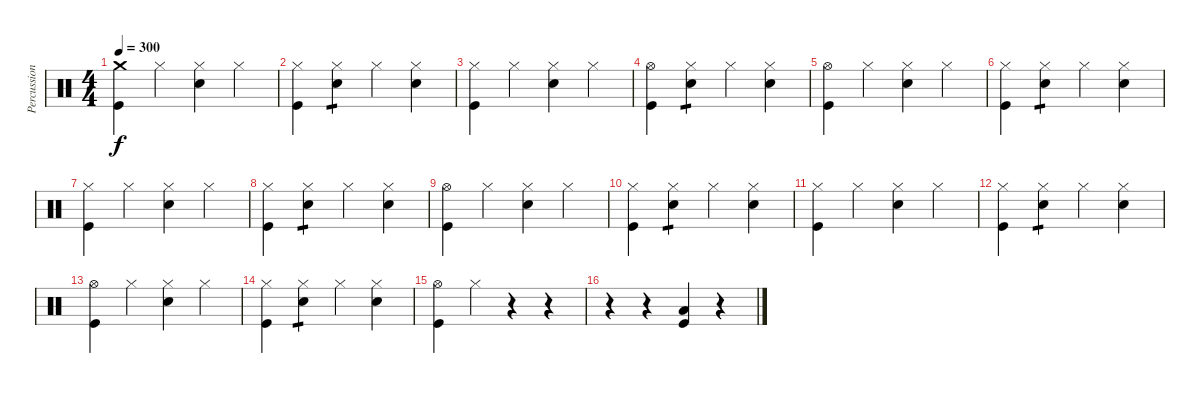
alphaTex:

\track ("Percussion" "Percussion") {instrument percussion}
\staff {score}
\articulation defaults
\ts (4 4)
\tempo 300
\clef neutral
\ks c
("Kick (hit)" "Crash medium (hit)").4{dy f} "Hi-Hat (closed)".4 ("Electric Snare (hit)" "Hi-Hat (closed)").4 "Hi-Hat (closed)".4 |
("Kick (hit)" "Hi-Hat (closed)").4 ("Electric Snare (hit)" "Hi-Hat (closed)").4{tp 1} "Hi-Hat (closed)".4 ("Electric Snare (hit)" "Hi-Hat (closed)").4 |
("Kick (hit)" "Hi-Hat (closed)").4 "Hi-Hat (closed)".4 ("Electric Snare (hit)" "Hi-Hat (closed)").4 "Hi-Hat (closed)".4 |
("Kick (hit)" "Hi-Hat (open)").4 ("Electric Snare (hit)" "Hi-Hat (closed)").4{tp 1} "Hi-Hat (closed)".4 ("Electric Snare (hit)" "Hi-Hat (closed)").4 |
("Kick (hit)" "Hi-Hat (open)").4 "Hi-Hat (closed)".4 ("Electric Snare (hit)" "Hi-Hat (closed)").4 "Hi-Hat (closed)".4 |
("Kick (hit)" "Hi-Hat (closed)").4 ("Electric Snare (hit)" "Hi-Hat (closed)").4{tp 1} "Hi-Hat (closed)".4 ("Electric Snare (hit)" "Hi-Hat (closed)").4 |
("Kick (hit)" "Hi-Hat (closed)").4 "Hi-Hat (closed)".4 ("Electric Snare (hit)" "Hi-Hat (closed)").4 "Hi-Hat (closed)".4 |
("Kick (hit)" "Hi-Hat (closed)").4 ("Electric Snare (hit)" "Hi-Hat (closed)").4{tp 1} "Hi-Hat (closed)".4 ("Electric Snare (hit)" "Hi-Hat (closed)").4 |
("Kick (hit)" "Hi-Hat (open)").4 "Hi-Hat (closed)".4 ("Electric Snare (hit)" "Hi-Hat (closed)").4 "Hi-Hat (closed)".4 |
("Kick (hit)" "Hi-Hat (closed)").4 ("Electric Snare (hit)" "Hi-Hat (closed)").4{tp 1} "Hi-Hat (closed)".4 ("Electric Snare (hit)" "Hi-Hat (closed)").4 |
("Kick (hit)" "Hi-Hat (closed)").4 "Hi-Hat (closed)".4 ("Electric Snare (hit)" "Hi-Hat (closed)").4 "Hi-Hat (closed)".4 |
("Kick (hit)" "Hi-Hat (closed)").4 ("Electric Snare (hit)" "Hi-Hat (closed)").4{tp 1} "Hi-Hat (closed)".4 ("Electric Snare (hit)" "Hi-Hat (closed)").4 |
("Kick (hit)" "Hi-Hat (open)").4 "Hi-Hat (closed)".4 ("Electric Snare (hit)" "Hi-Hat (closed)").4 "Hi-Hat (closed)".4 |
("Kick (hit)" "Hi-Hat (closed)").4 ("Electric Snare (hit)" "Hi-Hat (closed)").4{tp 1} "Hi-Hat (closed)".4 ("Electric Snare (hit)" "Hi-Hat (closed)").4 |
("Kick (hit)" "Hi-Hat (open)").4 "Hi-Hat (closed)".4 r.4 r.4 |
r.4 r.4 ("Kick (hit)" "Low Floor Tom (hit)").4 r.4
